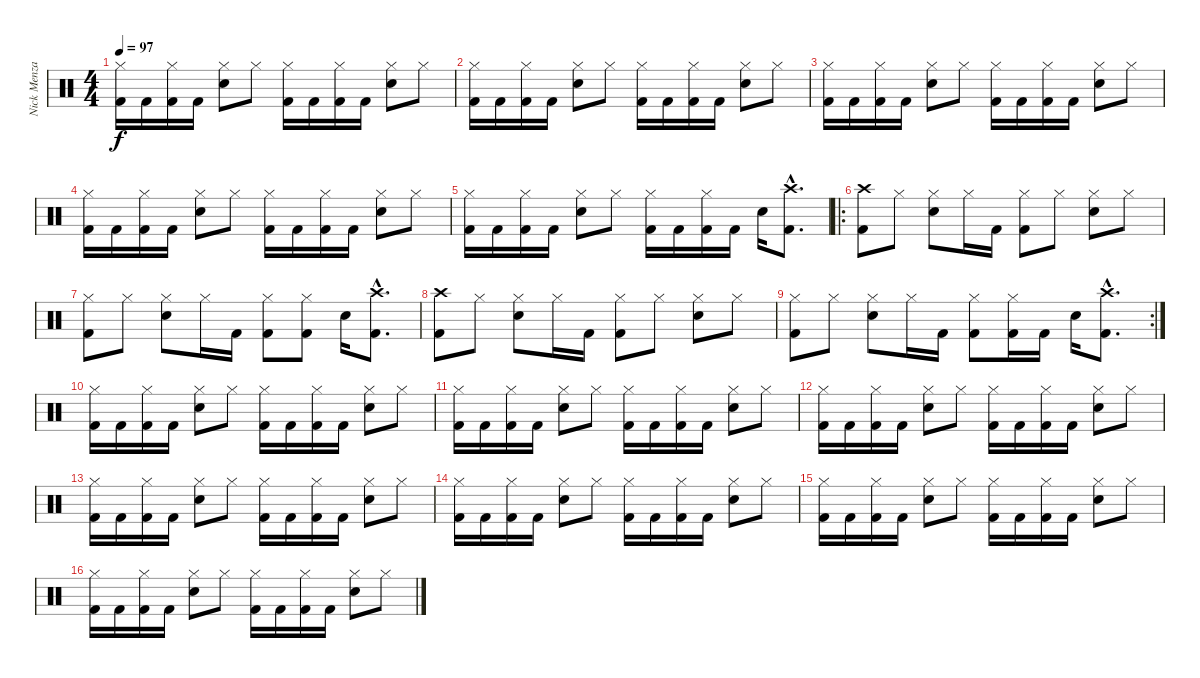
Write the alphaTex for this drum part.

\track ("Nick Menza" "Nick Menza") {instrument percussion}
\staff {score}
\articulation defaults
\ts (4 4)
\tempo 97
\clef neutral
\ks c
("Hi-Hat (closed)" "Kick (hit) 2").16{dy f} "Kick (hit) 2".16 ("Hi-Hat (closed)" "Kick (hit) 2").16 "Kick (hit) 2".16 ("Hi-Hat (closed)" "Electric Snare (hit)").8 "Hi-Hat (closed)".8 ("Hi-Hat (closed)" "Kick (hit) 2").16 "Kick (hit) 2".16 ("Hi-Hat (closed)" "Kick (hit) 2").16 "Kick (hit) 2".16 ("Hi-Hat (closed)" "Electric Snare (hit)").8 "Hi-Hat (closed)".8 |
("Hi-Hat (closed)" "Kick (hit) 2").16 "Kick (hit) 2".16 ("Hi-Hat (closed)" "Kick (hit) 2").16 "Kick (hit) 2".16 ("Hi-Hat (closed)" "Electric Snare (hit)").8 "Hi-Hat (closed)".8 ("Hi-Hat (closed)" "Kick (hit) 2").16 "Kick (hit) 2".16 ("Hi-Hat (closed)" "Kick (hit) 2").16 "Kick (hit) 2".16 ("Hi-Hat (closed)" "Electric Snare (hit)").8 "Hi-Hat (closed)".8 |
("Hi-Hat (closed)" "Kick (hit) 2").16 "Kick (hit) 2".16 ("Hi-Hat (closed)" "Kick (hit) 2").16 "Kick (hit) 2".16 ("Hi-Hat (closed)" "Electric Snare (hit)").8 "Hi-Hat (closed)".8 ("Hi-Hat (closed)" "Kick (hit) 2").16 "Kick (hit) 2".16 ("Hi-Hat (closed)" "Kick (hit) 2").16 "Kick (hit) 2".16 ("Hi-Hat (closed)" "Electric Snare (hit)").8 "Hi-Hat (closed)".8 |
("Hi-Hat (closed)" "Kick (hit) 2").16 "Kick (hit) 2".16 ("Hi-Hat (closed)" "Kick (hit) 2").16 "Kick (hit) 2".16 ("Hi-Hat (closed)" "Electric Snare (hit)").8 "Hi-Hat (closed)".8 ("Hi-Hat (closed)" "Kick (hit) 2").16 "Kick (hit) 2".16 ("Hi-Hat (closed)" "Kick (hit) 2").16 "Kick (hit) 2".16 ("Hi-Hat (closed)" "Electric Snare (hit)").8 "Hi-Hat (closed)".8 |
("Hi-Hat (closed)" "Kick (hit) 2").16 "Kick (hit) 2".16 ("Hi-Hat (closed)" "Kick (hit) 2").16 "Kick (hit) 2".16 ("Hi-Hat (closed)" "Electric Snare (hit)").8 "Hi-Hat (closed)".8 ("Hi-Hat (closed)" "Kick (hit) 2").16 "Kick (hit) 2".16 ("Hi-Hat (closed)" "Kick (hit) 2").16 "Kick (hit) 2".16 "Electric Snare (hit)".16 ("Crash high (hit)"{hac} "Kick (hit) 2"{hac}).8{d} |
\ro
("Crash high (hit)" "Kick (hit) 2").8 "Hi-Hat (closed)".8 ("Hi-Hat (closed)" "Electric Snare (hit)").8 "Hi-Hat (closed)".16 "Kick (hit) 2".16 ("Hi-Hat (closed)" "Kick (hit) 2").8 "Hi-Hat (closed)".8 ("Hi-Hat (closed)" "Electric Snare (hit)").8 "Hi-Hat (closed)".8 |
("Hi-Hat (closed)" "Kick (hit) 2").8 "Hi-Hat (closed)".8 ("Hi-Hat (closed)" "Electric Snare (hit)").8 "Hi-Hat (closed)".16 "Kick (hit) 2".16 ("Hi-Hat (closed)" "Kick (hit) 2").8 ("Hi-Hat (closed)" "Kick (hit) 2").8 "Electric Snare (hit)".16 ("Crash high (hit)"{hac} "Kick (hit) 2"{hac}).8{d} |
("Crash high (hit)" "Kick (hit) 2").8 "Hi-Hat (closed)".8 ("Hi-Hat (closed)" "Electric Snare (hit)").8 "Hi-Hat (closed)".16 "Kick (hit) 2".16 ("Hi-Hat (closed)" "Kick (hit) 2").8 "Hi-Hat (closed)".8 ("Hi-Hat (closed)" "Electric Snare (hit)").8 "Hi-Hat (closed)".8 |
\rc 2
("Hi-Hat (closed)" "Kick (hit) 2").8 "Hi-Hat (closed)".8 ("Hi-Hat (closed)" "Electric Snare (hit)").8 "Hi-Hat (closed)".16 "Kick (hit) 2".16 ("Hi-Hat (closed)" "Kick (hit) 2").8 ("Hi-Hat (closed)" "Kick (hit) 2").16 "Kick (hit) 2".16 "Electric Snare (hit)".16 ("Crash high (hit)"{hac} "Kick (hit) 2"{hac}).8{d} |
("Hi-Hat (closed)" "Kick (hit) 2").16 "Kick (hit) 2".16 ("Hi-Hat (closed)" "Kick (hit) 2").16 "Kick (hit) 2".16 ("Hi-Hat (closed)" "Electric Snare (hit)").8 "Hi-Hat (closed)".8 ("Hi-Hat (closed)" "Kick (hit) 2").16 "Kick (hit) 2".16 ("Hi-Hat (closed)" "Kick (hit) 2").16 "Kick (hit) 2".16 ("Hi-Hat (closed)" "Electric Snare (hit)").8 "Hi-Hat (closed)".8 |
("Hi-Hat (closed)" "Kick (hit) 2").16 "Kick (hit) 2".16 ("Hi-Hat (closed)" "Kick (hit) 2").16 "Kick (hit) 2".16 ("Hi-Hat (closed)" "Electric Snare (hit)").8 "Hi-Hat (closed)".8 ("Hi-Hat (closed)" "Kick (hit) 2").16 "Kick (hit) 2".16 ("Hi-Hat (closed)" "Kick (hit) 2").16 "Kick (hit) 2".16 ("Hi-Hat (closed)" "Electric Snare (hit)").8 "Hi-Hat (closed)".8 |
("Hi-Hat (closed)" "Kick (hit) 2").16 "Kick (hit) 2".16 ("Hi-Hat (closed)" "Kick (hit) 2").16 "Kick (hit) 2".16 ("Hi-Hat (closed)" "Electric Snare (hit)").8 "Hi-Hat (closed)".8 ("Hi-Hat (closed)" "Kick (hit) 2").16 "Kick (hit) 2".16 ("Hi-Hat (closed)" "Kick (hit) 2").16 "Kick (hit) 2".16 ("Hi-Hat (closed)" "Electric Snare (hit)").8 "Hi-Hat (closed)".8 |
("Hi-Hat (closed)" "Kick (hit) 2").16 "Kick (hit) 2".16 ("Hi-Hat (closed)" "Kick (hit) 2").16 "Kick (hit) 2".16 ("Hi-Hat (closed)" "Electric Snare (hit)").8 "Hi-Hat (closed)".8 ("Hi-Hat (closed)" "Kick (hit) 2").16 "Kick (hit) 2".16 ("Hi-Hat (closed)" "Kick (hit) 2").16 "Kick (hit) 2".16 ("Hi-Hat (closed)" "Electric Snare (hit)").8 "Hi-Hat (closed)".8 |
("Hi-Hat (closed)" "Kick (hit) 2").16 "Kick (hit) 2".16 ("Hi-Hat (closed)" "Kick (hit) 2").16 "Kick (hit) 2".16 ("Hi-Hat (closed)" "Electric Snare (hit)").8 "Hi-Hat (closed)".8 ("Hi-Hat (closed)" "Kick (hit) 2").16 "Kick (hit) 2".16 ("Hi-Hat (closed)" "Kick (hit) 2").16 "Kick (hit) 2".16 ("Hi-Hat (closed)" "Electric Snare (hit)").8 "Hi-Hat (closed)".8 |
("Hi-Hat (closed)" "Kick (hit) 2").16 "Kick (hit) 2".16 ("Hi-Hat (closed)" "Kick (hit) 2").16 "Kick (hit) 2".16 ("Hi-Hat (closed)" "Electric Snare (hit)").8 "Hi-Hat (closed)".8 ("Hi-Hat (closed)" "Kick (hit) 2").16 "Kick (hit) 2".16 ("Hi-Hat (closed)" "Kick (hit) 2").16 "Kick (hit) 2".16 ("Hi-Hat (closed)" "Electric Snare (hit)").8 "Hi-Hat (closed)".8 |
("Hi-Hat (closed)" "Kick (hit) 2").16 "Kick (hit) 2".16 ("Hi-Hat (closed)" "Kick (hit) 2").16 "Kick (hit) 2".16 ("Hi-Hat (closed)" "Electric Snare (hit)").8 "Hi-Hat (closed)".8 ("Hi-Hat (closed)" "Kick (hit) 2").16 "Kick (hit) 2".16 ("Hi-Hat (closed)" "Kick (hit) 2").16 "Kick (hit) 2".16 ("Hi-Hat (closed)" "Electric Snare (hit)").8 "Hi-Hat (closed)".8
